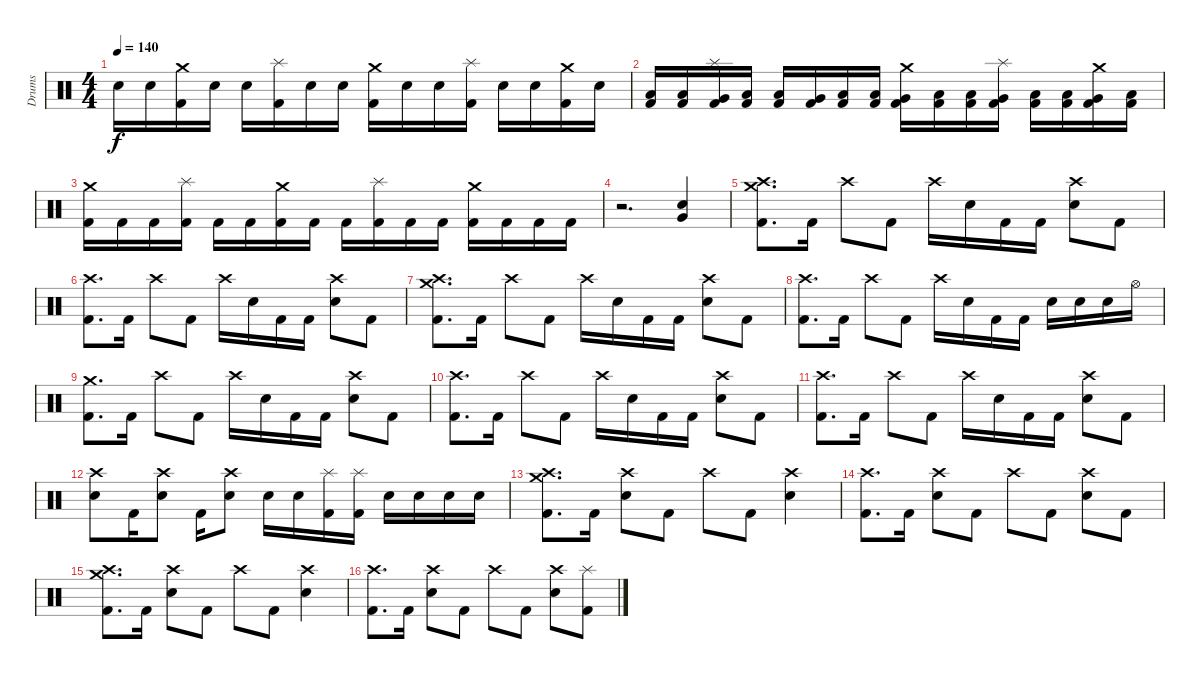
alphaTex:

\track ("Drums" "Drums") {instrument percussion}
\staff {score}
\articulation defaults
\ts (4 4)
\tempo 140
\clef neutral
\ks c "Electric Snare (hit)".16{dy f} "Electric Snare (hit)".16
("Crash medium (hit)" "Kick (hit) 2").16 "Electric Snare (hit)".16 "Electric Snare (hit)".16 ("Splash (hit)" "Kick (hit) 2").16 "Electric Snare (hit)".16 "Electric Snare (hit)".16 ("Crash medium (hit)" "Kick (hit) 2").16 "Electric Snare (hit)".16 "Electric Snare (hit)".16 ("Splash (hit)" "Kick (hit) 2").16 "Electric Snare (hit)".16 "Electric Snare (hit)".16 ("Crash medium (hit)" "Kick (hit) 2").16 "Electric Snare (hit)".16 |
("Low Tom (hit)" "Kick (hit) 2").16 ("Low Tom (hit)" "Kick (hit) 2").16 ("Splash (hit)" "Very Low Tom (hit)" "Kick (hit) 2").16 ("Low Tom (hit)" "Kick (hit) 2").16 ("Low Tom (hit)" "Kick (hit) 2").16 ("Very Low Tom (hit)" "Kick (hit) 2").16 ("Low Tom (hit)" "Kick (hit) 2").16 ("Low Tom (hit)" "Kick (hit) 2").16 ("Crash medium (hit)" "Very Low Tom (hit)" "Kick (hit) 2").16 ("Low Tom (hit)" "Kick (hit) 2").16 ("Low Tom (hit)" "Kick (hit) 2").16 ("Splash (hit)" "Very Low Tom (hit)" "Kick (hit) 2").16 ("Low Tom (hit)" "Kick (hit) 2").16 ("Low Tom (hit)" "Kick (hit) 2").16 ("Crash medium (hit)" "Very Low Tom (hit)" "Kick (hit) 2").16 ("Low Tom (hit)" "Kick (hit) 2").16 |
("Crash medium (hit)" "Kick (hit) 2").16 "Kick (hit) 2".16 "Kick (hit) 2".16 ("Splash (hit)" "Kick (hit) 2").16 "Kick (hit) 2".16 "Kick (hit) 2".16 ("Crash medium (hit)" "Kick (hit) 2").16 "Kick (hit) 2".16 "Kick (hit) 2".16 ("Splash (hit)" "Kick (hit) 2").16 "Kick (hit) 2".16 "Kick (hit) 2".16 ("Crash medium (hit)" "Kick (hit) 2").16 "Kick (hit) 2".16 "Kick (hit) 2".16 "Kick (hit) 2".16 |
r.2{d volume 0} ("Very Low Tom (hit)" "Electric Snare (hit)").4{volume 16} |
("Crash medium (hit)" "Crash high (hit)" "Kick (hit) 2").8{d} "Kick (hit) 2".16 "Crash high (hit)".8 "Kick (hit) 2".8 "Crash high (hit)".16 "Electric Snare (hit)".16 "Kick (hit) 2".16 "Kick (hit) 2".16 ("Crash high (hit)" "Electric Snare (hit)").8 "Kick (hit) 2".8 |
("Crash high (hit)" "Kick (hit) 2").8{d} "Kick (hit) 2".16 "Crash high (hit)".8 "Kick (hit) 2".8 "Crash high (hit)".16 "Electric Snare (hit)".16 "Kick (hit) 2".16 "Kick (hit) 2".16 ("Crash high (hit)" "Electric Snare (hit)").8 "Kick (hit) 2".8 |
("Crash medium (hit)" "Crash high (hit)" "Kick (hit) 2").8{d} "Kick (hit) 2".16 "Crash high (hit)".8 "Kick (hit) 2".8 "Crash high (hit)".16 "Electric Snare (hit)".16 "Kick (hit) 2".16 "Kick (hit) 2".16 ("Crash high (hit)" "Electric Snare (hit)").8 "Kick (hit) 2".8 |
("Crash high (hit)" "Kick (hit) 2").8{d} "Kick (hit) 2".16 "Crash high (hit)".8 "Kick (hit) 2".8 "Crash high (hit)".16 "Electric Snare (hit)".16 "Kick (hit) 2".16 "Kick (hit) 2".16 "Electric Snare (hit)".16 "Electric Snare (hit)".16 "Electric Snare (hit)".16 "Hi-Hat (open)".16 |
("Crash medium (hit)" "Kick (hit) 2").8{d} "Kick (hit) 2".16 "Crash high (hit)".8 "Kick (hit) 2".8 "Crash high (hit)".16 "Electric Snare (hit)".16 "Kick (hit) 2".16 "Kick (hit) 2".16 ("Crash high (hit)" "Electric Snare (hit)").8 "Kick (hit) 2".8 |
("Crash high (hit)" "Kick (hit) 2").8{d} "Kick (hit) 2".16 "Crash high (hit)".8 "Kick (hit) 2".8 "Crash high (hit)".16 "Electric Snare (hit)".16 "Kick (hit) 2".16 "Kick (hit) 2".16 ("Crash high (hit)" "Electric Snare (hit)").8 "Kick (hit) 2".8 |
("Crash high (hit)" "Kick (hit) 2").8{d} "Kick (hit) 2".16 "Crash high (hit)".8 "Kick (hit) 2".8 "Crash high (hit)".16 "Electric Snare (hit)".16 "Kick (hit) 2".16 "Kick (hit) 2".16 ("Crash high (hit)" "Electric Snare (hit)").8 "Kick (hit) 2".8 |
("Crash high (hit)" "Electric Snare (hit)").8 "Kick (hit) 2".16 ("Crash high (hit)" "Electric Snare (hit)").8 "Kick (hit) 2".16 ("Crash high (hit)" "Electric Snare (hit)").8 "Electric Snare (hit)".16 "Electric Snare (hit)".16 ("Splash (hit)" "Kick (hit) 2").16 ("Splash (hit)" "Kick (hit) 2").16 "Electric Snare (hit)".16 "Electric Snare (hit)".16 "Electric Snare (hit)".16 "Electric Snare (hit)".16 |
("Crash medium (hit)" "Crash high (hit)" "Kick (hit) 2").8{d} "Kick (hit) 2".16 ("Crash high (hit)" "Electric Snare (hit)").8 "Kick (hit) 2".8 "Crash high (hit)".8 "Kick (hit) 2".8 ("Crash high (hit)" "Electric Snare (hit)").4 |
("Crash high (hit)" "Kick (hit) 2").8{d} "Kick (hit) 2".16 ("Crash high (hit)" "Electric Snare (hit)").8 "Kick (hit) 2".8 "Crash high (hit)".8 "Kick (hit) 2".8 ("Crash high (hit)" "Electric Snare (hit)").8 "Kick (hit) 2".8 |
("Crash medium (hit)" "Crash high (hit)" "Kick (hit) 2").8{d} "Kick (hit) 2".16 ("Crash high (hit)" "Electric Snare (hit)").8 "Kick (hit) 2".8 "Crash high (hit)".8 "Kick (hit) 2".8 ("Crash high (hit)" "Electric Snare (hit)").4 |
("Crash high (hit)" "Kick (hit) 2").8{d} "Kick (hit) 2".16 ("Crash high (hit)" "Electric Snare (hit)").8 "Kick (hit) 2".8 "Crash high (hit)".8 "Kick (hit) 2".8 ("Crash high (hit)" "Electric Snare (hit)").8 ("Splash (hit)" "Kick (hit) 2").8
